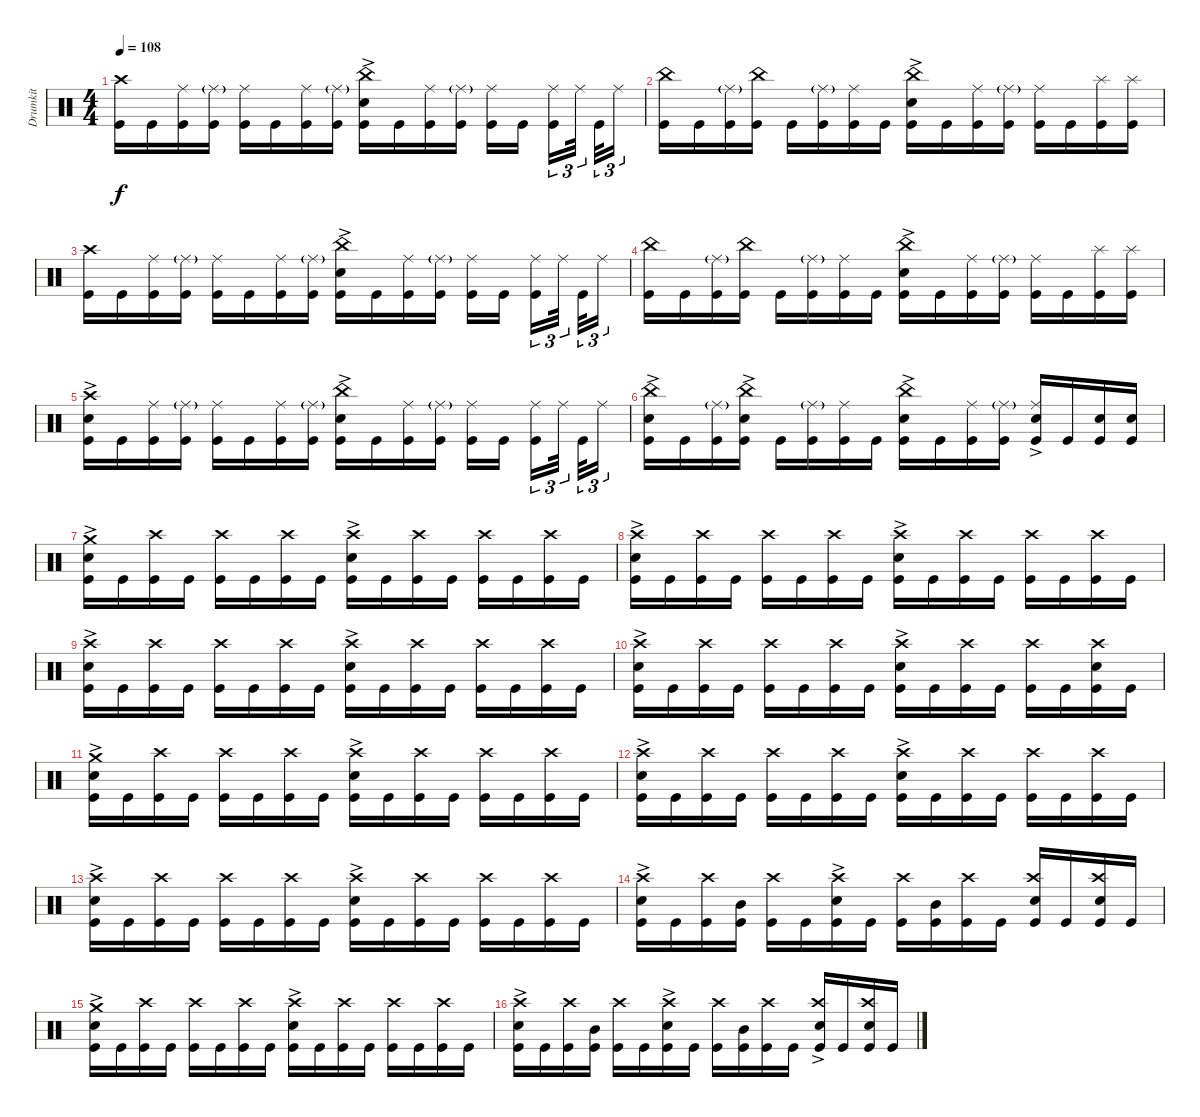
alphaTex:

\track ("Drumkit" "Drumkit") {instrument percussion}
\staff {score}
\articulation defaults
\ts (4 4)
\tempo 108
\clef neutral
\ks c
("Kick (hit)" "Crash high (hit)").16{dy f} "Kick (hit)".16 ("Kick (hit)" "Ride (middle)").16 ("Kick (hit)" "Ride (middle)"{g}).16 ("Kick (hit)" "Ride (middle)").16 "Kick (hit)".16 ("Kick (hit)" "Ride (middle)").16 ("Kick (hit)" "Ride (middle)"{g}).16 ("Kick (hit)" "Snare (hit) 2"{ac} "China (hit)").16 "Kick (hit)".16 ("Kick (hit)" "Ride (middle)").16 ("Kick (hit)" "Ride (middle)"{g}).16 ("Kick (hit)" "Ride (middle)").16 "Kick (hit)".16 ("Ride (middle)" "Kick (hit)").16{tu (3 2)} "Ride (middle)".32{tu (3 2)} "Kick (hit)".32{tu (3 2)} "Ride (middle)".16{tu (3 2)} |
("Kick (hit)" "China (hit)").16 "Kick (hit)".16 ("Kick (hit)" "Ride (middle)"{g}).16 ("Kick (hit)" "China (hit)").16 "Kick (hit)".16 ("Kick (hit)" "Ride (middle)"{g}).16 ("Kick (hit)" "Ride (middle)").16 "Kick (hit)".16 ("Kick (hit)" "Snare (hit) 2"{ac} "China (hit)").16 "Kick (hit)".16 ("Kick (hit)" "Ride (middle)").16 ("Kick (hit)" "Ride (middle)"{g}).16 ("Kick (hit)" "Ride (middle)").16 "Kick (hit)".16 ("Splash (hit)" "Kick (hit)").16 ("Splash (hit)" "Kick (hit)").16 |
("Kick (hit)" "Crash high (hit)").16 "Kick (hit)".16 ("Kick (hit)" "Ride (middle)").16 ("Kick (hit)" "Ride (middle)"{g}).16 ("Kick (hit)" "Ride (middle)").16 "Kick (hit)".16 ("Kick (hit)" "Ride (middle)").16 ("Kick (hit)" "Ride (middle)"{g}).16 ("Kick (hit)" "Snare (hit) 2"{ac} "China (hit)").16 "Kick (hit)".16 ("Kick (hit)" "Ride (middle)").16 ("Kick (hit)" "Ride (middle)"{g}).16 ("Kick (hit)" "Ride (middle)").16 "Kick (hit)".16 ("Ride (middle)" "Kick (hit)").16{tu (3 2)} "Ride (middle)".32{tu (3 2)} "Kick (hit)".32{tu (3 2)} "Ride (middle)".16{tu (3 2)} |
("Kick (hit)" "China (hit)").16 "Kick (hit)".16 ("Kick (hit)" "Ride (middle)"{g}).16 ("Kick (hit)" "China (hit)").16 "Kick (hit)".16 ("Kick (hit)" "Ride (middle)"{g}).16 ("Kick (hit)" "Ride (middle)").16 "Kick (hit)".16 ("Kick (hit)" "Snare (hit) 2"{ac} "China (hit)").16 "Kick (hit)".16 ("Kick (hit)" "Ride (middle)").16 ("Kick (hit)" "Ride (middle)"{g}).16 ("Kick (hit)" "Ride (middle)").16 "Kick (hit)".16 ("Splash (hit)" "Kick (hit)").16 ("Splash (hit)" "Kick (hit)").16 |
("Kick (hit)" "Crash high (hit)" "Snare (hit) 2"{ac}).16 "Kick (hit)".16 ("Kick (hit)" "Ride (middle)").16 ("Kick (hit)" "Ride (middle)"{g}).16 ("Kick (hit)" "Ride (middle)").16 "Kick (hit)".16 ("Kick (hit)" "Ride (middle)").16 ("Kick (hit)" "Ride (middle)"{g}).16 ("Kick (hit)" "Snare (hit) 2"{ac} "China (hit)").16 "Kick (hit)".16 ("Kick (hit)" "Ride (middle)").16 ("Kick (hit)" "Ride (middle)"{g}).16 ("Kick (hit)" "Ride (middle)").16 "Kick (hit)".16 ("Ride (middle)" "Kick (hit)").16{tu (3 2)} "Ride (middle)".32{tu (3 2)} "Kick (hit)".32{tu (3 2)} "Ride (middle)".16{tu (3 2)} |
("Kick (hit)" "China (hit)" "Snare (hit) 2"{ac}).16 "Kick (hit)".16 ("Kick (hit)" "Ride (middle)"{g}).16 ("Kick (hit)" "China (hit)" "Snare (hit) 2"{ac}).16 "Kick (hit)".16 ("Kick (hit)" "Ride (middle)"{g}).16 ("Kick (hit)" "Ride (middle)").16 "Kick (hit)".16 ("Kick (hit)" "Snare (hit) 2"{ac} "China (hit)").16 "Kick (hit)".16 ("Kick (hit)" "Ride (middle)").16 ("Kick (hit)" "Ride (middle)"{g}).16 ("Kick (hit)" "Ride (middle)" "Snare (hit) 2"{ac}).16 "Kick (hit)".16 ("Kick (hit)" "Snare (hit) 2").16 ("Kick (hit)" "Snare (hit) 2").16 |
("Kick (hit)" "Snare (hit) 2"{ac} "Crash medium (hit)").16 "Kick (hit)".16 ("Kick (hit)" "Crash high (hit)").16 "Kick (hit)".16 ("Kick (hit)" "Crash high (hit)").16 "Kick (hit)".16 ("Kick (hit)" "Crash high (hit)").16 "Kick (hit)".16 ("Kick (hit)" "Snare (hit) 2"{ac} "Crash high (hit)").16 "Kick (hit)".16 ("Kick (hit)" "Crash high (hit)").16 "Kick (hit)".16 ("Kick (hit)" "Crash high (hit)").16 "Kick (hit)".16 ("Kick (hit)" "Crash high (hit)").16 "Kick (hit)".16 |
("Kick (hit)" "Snare (hit) 2"{ac} "Crash high (hit)").16 "Kick (hit)".16 ("Kick (hit)" "Crash high (hit)").16 "Kick (hit)".16 ("Kick (hit)" "Crash high (hit)").16 "Kick (hit)".16 ("Kick (hit)" "Crash high (hit)").16 "Kick (hit)".16 ("Kick (hit)" "Snare (hit) 2"{ac} "Crash high (hit)").16 "Kick (hit)".16 ("Kick (hit)" "Crash high (hit)").16 "Kick (hit)".16 ("Kick (hit)" "Crash high (hit)").16 "Kick (hit)".16 ("Kick (hit)" "Crash high (hit)").16 "Kick (hit)".16 |
("Kick (hit)" "Snare (hit) 2"{ac} "Crash high (hit)").16 "Kick (hit)".16 ("Kick (hit)" "Crash high (hit)").16 "Kick (hit)".16 ("Kick (hit)" "Crash high (hit)").16 "Kick (hit)".16 ("Kick (hit)" "Crash high (hit)").16 "Kick (hit)".16 ("Kick (hit)" "Snare (hit) 2"{ac} "Crash high (hit)").16 "Kick (hit)".16 ("Kick (hit)" "Crash high (hit)").16 "Kick (hit)".16 ("Kick (hit)" "Crash high (hit)").16 "Kick (hit)".16 ("Kick (hit)" "Crash high (hit)").16 "Kick (hit)".16 |
("Kick (hit)" "Snare (hit) 2"{ac} "Crash high (hit)").16 "Kick (hit)".16 ("Kick (hit)" "Crash high (hit)").16 "Kick (hit)".16 ("Kick (hit)" "Crash high (hit)").16 "Kick (hit)".16 ("Kick (hit)" "Crash high (hit)").16 "Kick (hit)".16 ("Kick (hit)" "Snare (hit) 2"{ac} "Crash high (hit)").16 "Kick (hit)".16 ("Kick (hit)" "Crash high (hit)").16 "Kick (hit)".16 ("Kick (hit)" "Crash high (hit)").16 "Kick (hit)".16 ("Kick (hit)" "Crash high (hit)" "Snare (hit) 2").16 "Kick (hit)".16 |
("Kick (hit)" "Snare (hit) 2"{ac} "Crash medium (hit)").16 "Kick (hit)".16 ("Kick (hit)" "Crash high (hit)").16 "Kick (hit)".16 ("Kick (hit)" "Crash high (hit)").16 "Kick (hit)".16 ("Kick (hit)" "Crash high (hit)").16 "Kick (hit)".16 ("Kick (hit)" "Snare (hit) 2"{ac} "Crash high (hit)").16 "Kick (hit)".16 ("Kick (hit)" "Crash high (hit)").16 "Kick (hit)".16 ("Kick (hit)" "Crash high (hit)").16 "Kick (hit)".16 ("Kick (hit)" "Crash high (hit)").16 "Kick (hit)".16 |
("Kick (hit)" "Snare (hit) 2"{ac} "Crash high (hit)").16 "Kick (hit)".16 ("Kick (hit)" "Crash high (hit)").16 "Kick (hit)".16 ("Kick (hit)" "Crash high (hit)").16 "Kick (hit)".16 ("Kick (hit)" "Crash high (hit)").16 "Kick (hit)".16 ("Kick (hit)" "Snare (hit) 2"{ac} "Crash high (hit)").16 "Kick (hit)".16 ("Kick (hit)" "Crash high (hit)").16 "Kick (hit)".16 ("Kick (hit)" "Crash high (hit)").16 "Kick (hit)".16 ("Kick (hit)" "Crash high (hit)").16 "Kick (hit)".16 |
("Kick (hit)" "Snare (hit) 2"{ac} "Crash high (hit)").16 "Kick (hit)".16 ("Kick (hit)" "Crash high (hit)").16 "Kick (hit)".16 ("Kick (hit)" "Crash high (hit)").16 "Kick (hit)".16 ("Kick (hit)" "Crash high (hit)").16 "Kick (hit)".16 ("Kick (hit)" "Snare (hit) 2"{ac} "Crash high (hit)").16 "Kick (hit)".16 ("Kick (hit)" "Crash high (hit)").16 "Kick (hit)".16 ("Kick (hit)" "Crash high (hit)").16 "Kick (hit)".16 ("Kick (hit)" "Crash high (hit)").16 "Kick (hit)".16 |
("Kick (hit)" "Snare (hit) 2"{ac} "Crash high (hit)").16 "Kick (hit)".16 ("Kick (hit)" "Crash high (hit)").16 ("Kick (hit)" "Mid Tom (hit)").16 ("Kick (hit)" "Crash high (hit)").16 "Kick (hit)".16 ("Kick (hit)" "Crash high (hit)" "Snare (hit) 2"{ac}).16 "Kick (hit)".16 ("Kick (hit)" "Crash high (hit)").16 ("Kick (hit)" "Mid Tom (hit)").16 ("Kick (hit)" "Crash high (hit)").16 "Kick (hit)".16 ("Kick (hit)" "Crash high (hit)" "Snare (hit) 2").16 "Kick (hit)".16 ("Kick (hit)" "Crash high (hit)" "Snare (hit) 2").16 "Kick (hit)".16 |
("Kick (hit)" "Snare (hit) 2"{ac} "Crash medium (hit)").16 "Kick (hit)".16 ("Kick (hit)" "Crash high (hit)").16 "Kick (hit)".16 ("Kick (hit)" "Crash high (hit)").16 "Kick (hit)".16 ("Kick (hit)" "Crash high (hit)").16 "Kick (hit)".16 ("Kick (hit)" "Snare (hit) 2"{ac} "Crash high (hit)").16 "Kick (hit)".16 ("Kick (hit)" "Crash high (hit)").16 "Kick (hit)".16 ("Kick (hit)" "Crash high (hit)").16 "Kick (hit)".16 ("Kick (hit)" "Crash high (hit)").16 "Kick (hit)".16 |
("Kick (hit)" "Snare (hit) 2"{ac} "Crash high (hit)").16 "Kick (hit)".16 ("Kick (hit)" "Crash high (hit)").16 ("Kick (hit)" "Mid Tom (hit)").16 ("Kick (hit)" "Crash high (hit)").16 "Kick (hit)".16 ("Kick (hit)" "Crash high (hit)" "Snare (hit) 2"{ac}).16 "Kick (hit)".16 ("Kick (hit)" "Crash high (hit)").16 ("Kick (hit)" "Mid Tom (hit)").16 ("Kick (hit)" "Crash high (hit)").16 "Kick (hit)".16 ("Kick (hit)" "Crash high (hit)" "Snare (hit) 2"{ac}).16 "Kick (hit)".16 ("Kick (hit)" "Crash high (hit)" "Snare (hit) 2").16 "Kick (hit)".16
